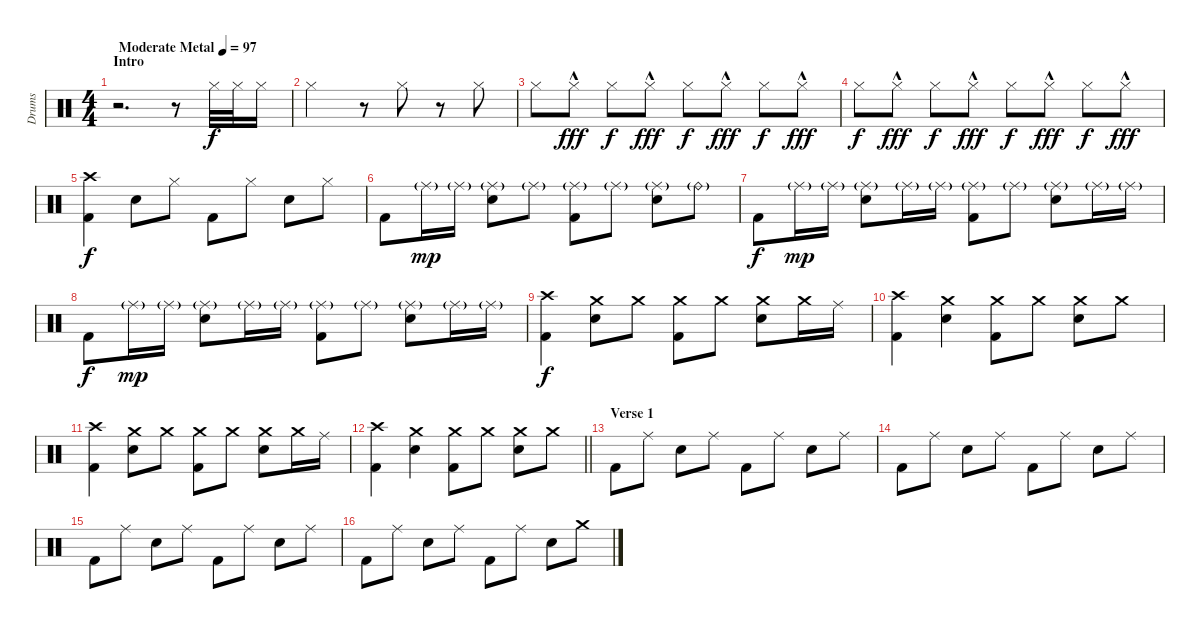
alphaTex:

\track ("Drums" "Drums") {instrument percussion}
\staff {score}
\articulation defaults
\ts (4 4)
\section ("" "Intro")
\tempo (97 "Moderate Metal")
\clef neutral
\ks c
r.2{d dy f} r.8 "Hi-Hat (closed)".32 "Hi-Hat (closed)".32 "Hi-Hat (closed)".16 |
"Hi-Hat (closed)".2 r.8 "Hi-Hat (closed)".8 r.8 "Hi-Hat (closed)".8 |
"Hi-Hat (closed)".8 "Hi-Hat (closed)"{hac}.8{dy fff} "Hi-Hat (closed)".8{dy f} "Hi-Hat (closed)"{hac}.8{dy fff} "Hi-Hat (closed)".8{dy f} "Hi-Hat (closed)"{hac}.8{dy fff} "Hi-Hat (closed)".8{dy f} "Hi-Hat (closed)"{hac}.8{dy fff} |
"Hi-Hat (closed)".8{dy f} "Hi-Hat (closed)"{hac}.8{dy fff} "Hi-Hat (closed)".8{dy f} "Hi-Hat (closed)"{hac}.8{dy fff} "Hi-Hat (closed)".8{dy f} "Hi-Hat (closed)"{hac}.8{dy fff} "Hi-Hat (closed)".8{dy f} "Hi-Hat (closed)"{hac}.8{dy fff} |
("Crash high (hit)" "Kick (hit) 2").4{dy f} "Snare (hit) 2".8 "Hi-Hat (closed)".8 "Kick (hit) 2".8 "Hi-Hat (closed)".8 "Snare (hit) 2".8 "Hi-Hat (closed)".8 |
"Kick (hit) 2".8 "Ride (middle)"{g}.16{dy mp} "Ride (middle)"{g}.16 ("Ride (middle)"{g} "Snare (hit) 2").8 "Ride (middle)"{g}.8 ("Ride (middle)"{g} "Kick (hit) 2").8 "Ride (middle)"{g}.8 ("Ride (middle)"{g} "Snare (hit) 2").8 "Ride (bell)"{g}.8 |
"Kick (hit) 2".8{dy f} "Ride (middle)"{g}.16{dy mp} "Ride (middle)"{g}.16 ("Ride (middle)"{g} "Snare (hit) 2").8 "Ride (middle)"{g}.16 "Ride (middle)"{g}.16 ("Ride (middle)"{g} "Kick (hit) 2").8 "Ride (middle)"{g}.8 ("Ride (middle)"{g} "Snare (hit) 2").8 "Ride (middle)"{g}.16 "Ride (middle)"{g}.16 |
"Kick (hit) 2".8{dy f} "Ride (middle)"{g}.16{dy mp} "Ride (middle)"{g}.16 ("Ride (middle)"{g} "Snare (hit) 2").8 "Ride (middle)"{g}.16 "Ride (middle)"{g}.16 ("Ride (middle)"{g} "Kick (hit) 2").8 "Ride (middle)"{g}.8 ("Ride (middle)"{g} "Snare (hit) 2").8 "Ride (middle)"{g}.16 "Ride (middle)"{g}.16 |
("Crash high (hit)" "Kick (hit) 2").4{dy f} ("Crash medium (hit)" "Snare (hit) 2").8 "Crash medium (hit)".8 ("Crash medium (hit)" "Kick (hit) 2").8 "Crash medium (hit)".8 ("Crash medium (hit)" "Snare (hit) 2").8 "Crash medium (hit)".16 "Ride (middle)".16 |
("Crash high (hit)" "Kick (hit) 2").4 ("Crash medium (hit)" "Snare (hit) 2").4 ("Crash medium (hit)" "Kick (hit) 2").8 "Crash medium (hit)".8 ("Crash medium (hit)" "Snare (hit) 2").8 "Crash medium (hit)".8 |
("Crash high (hit)" "Kick (hit) 2").4 ("Crash medium (hit)" "Snare (hit) 2").8 "Crash medium (hit)".8 ("Crash medium (hit)" "Kick (hit) 2").8 "Crash medium (hit)".8 ("Crash medium (hit)" "Snare (hit) 2").8 "Crash medium (hit)".16 "Ride (middle)".16 |
\barLineRight lightlight
("Crash high (hit)" "Kick (hit) 2").4 ("Crash medium (hit)" "Snare (hit) 2").4 ("Crash medium (hit)" "Kick (hit) 2").8 "Crash medium (hit)".8 ("Crash medium (hit)" "Snare (hit) 2").8 "Crash medium (hit)".8 |
\section ("" "Verse 1")
"Kick (hit) 2".8 "Ride (middle)".8 "Snare (hit) 2".8 "Ride (middle)".8 "Kick (hit) 2".8 "Ride (middle)".8 "Snare (hit) 2".8 "Ride (middle)".8 |
"Kick (hit) 2".8 "Ride (middle)".8 "Snare (hit) 2".8 "Ride (middle)".8 "Kick (hit) 2".8 "Ride (middle)".8 "Snare (hit) 2".8 "Ride (middle)".8 |
"Kick (hit) 2".8 "Ride (middle)".8 "Snare (hit) 2".8 "Ride (middle)".8 "Kick (hit) 2".8 "Ride (middle)".8 "Snare (hit) 2".8 "Ride (middle)".8 |
"Kick (hit) 2".8 "Ride (middle)".8 "Snare (hit) 2".8 "Ride (middle)".8 "Kick (hit) 2".8 "Ride (middle)".8 "Snare (hit) 2".8 "Crash medium (hit)".8
